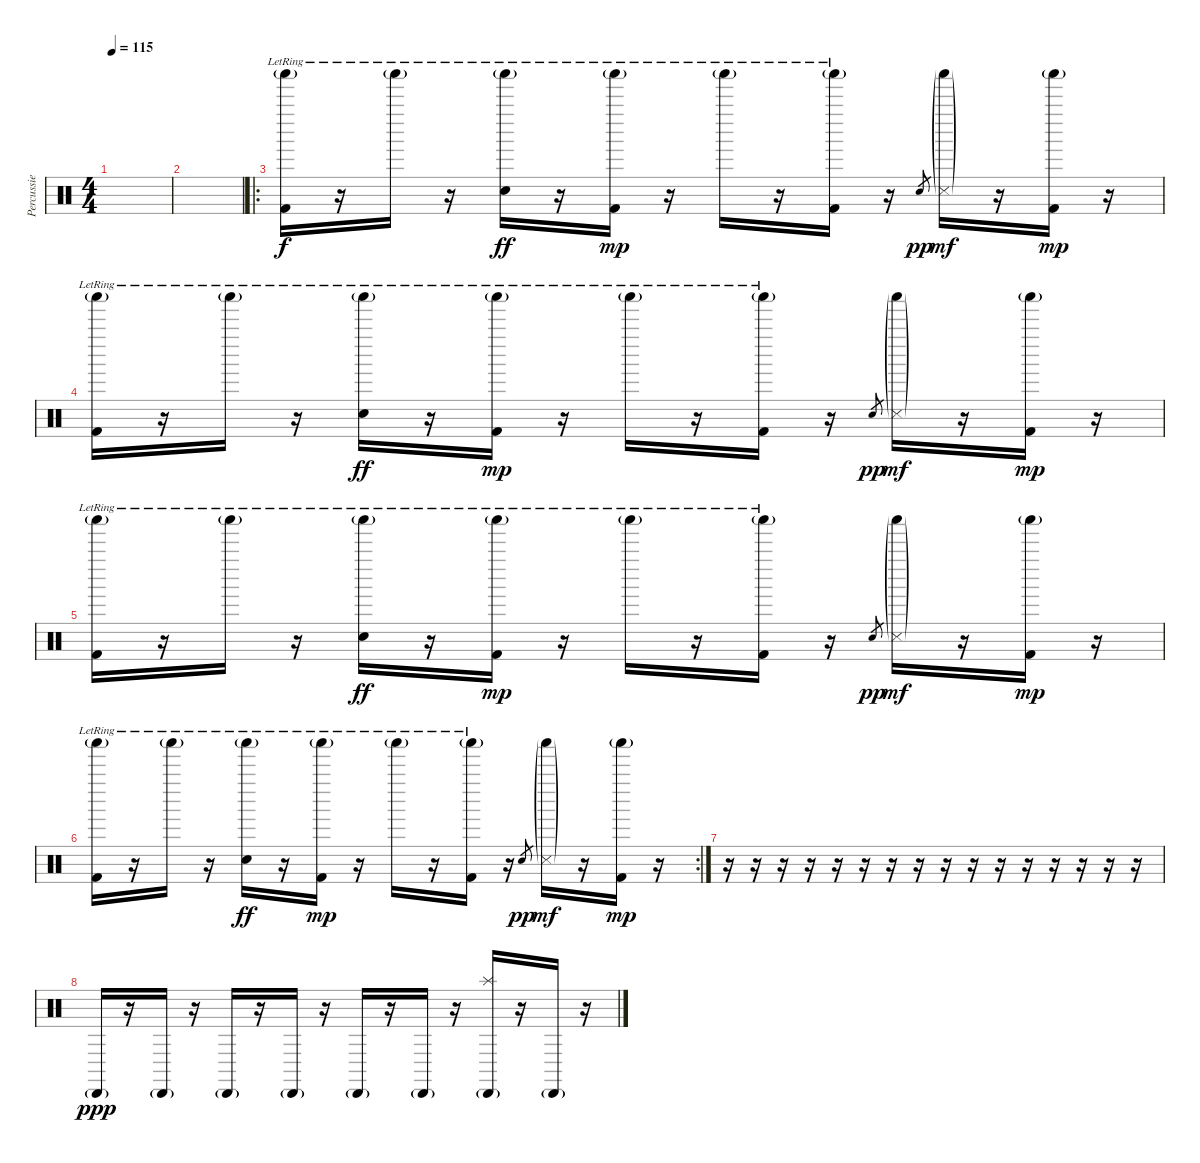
\track ("Percussie" "Percussie") {instrument percussion}
\staff {score}
\articulation defaults
\ts (4 4)
\tempo 115
\clef neutral
\ks c
|
|
\ro
("Shaker (hit)"{g lr} "Kick (hit) 2").16 r.16 "Shaker (hit)"{g lr}.16 r.16 ("Shaker (hit)"{g lr} "Hand Clap (hit)"{lr}).16{dy ff} r.16 ("Shaker (hit)"{g lr} "Kick (hit) 2").16{dy mp} r.16 "Shaker (hit)"{g lr}.16 r.16 ("Shaker (hit)"{g lr} "Kick (hit) 2").16 r.16 "Snare (hit)".8{gr dy pp} ("Shaker (hit)"{g} "Metronome (hit)"{g}).16{dy mf} r.16 ("Shaker (hit)"{g} "Kick (hit) 2").16{dy mp} r.16 |
("Shaker (hit)"{g lr} "Kick (hit) 2").16 r.16 "Shaker (hit)"{g lr}.16 r.16 ("Shaker (hit)"{g lr} "Hand Clap (hit)"{lr}).16{dy ff} r.16 ("Shaker (hit)"{g lr} "Kick (hit) 2").16{dy mp} r.16 "Shaker (hit)"{g lr}.16 r.16 ("Shaker (hit)"{g lr} "Kick (hit) 2").16 r.16 "Snare (hit)".8{gr dy pp} ("Shaker (hit)"{g} "Metronome (hit)"{g}).16{dy mf} r.16 ("Shaker (hit)"{g} "Kick (hit) 2").16{dy mp} r.16 |
("Shaker (hit)"{g lr} "Kick (hit) 2").16 r.16 "Shaker (hit)"{g lr}.16 r.16 ("Shaker (hit)"{g lr} "Hand Clap (hit)"{lr}).16{dy ff} r.16 ("Shaker (hit)"{g lr} "Kick (hit) 2").16{dy mp} r.16 "Shaker (hit)"{g lr}.16 r.16 ("Shaker (hit)"{g lr} "Kick (hit) 2").16 r.16 "Snare (hit)".8{gr dy pp} ("Shaker (hit)"{g} "Metronome (hit)"{g}).16{dy mf} r.16 ("Shaker (hit)"{g} "Kick (hit) 2").16{dy mp} r.16 |
\rc 2
("Shaker (hit)"{g lr} "Kick (hit) 2").16 r.16 "Shaker (hit)"{g lr}.16 r.16 ("Shaker (hit)"{g lr} "Hand Clap (hit)"{lr}).16{dy ff} r.16 ("Shaker (hit)"{g lr} "Kick (hit) 2").16{dy mp} r.16 "Shaker (hit)"{g lr}.16 r.16 ("Shaker (hit)"{g lr} "Kick (hit) 2").16 r.16 "Snare (hit)".8{gr dy pp} ("Shaker (hit)"{g} "Metronome (hit)"{g}).16{dy mf} r.16 ("Shaker (hit)"{g} "Kick (hit) 2").16{dy mp} r.16 |
r.16 r.16 r.16 r.16 r.16 r.16 r.16 r.16 r.16 r.16 r.16 r.16 r.16 r.16 r.16 r.16 |
"Cabasa (hit)"{g}.16{dy ppp} r.16 "Cabasa (hit)"{g}.16 r.16 "Cabasa (hit)"{g}.16 r.16 "Cabasa (hit)"{g}.16 r.16 "Cabasa (hit)"{g}.16 r.16 "Cabasa (hit)"{g}.16 r.16 ("Cabasa (hit)"{g} "Splash (hit)").16 r.16 "Cabasa (hit)"{g}.16 r.16
